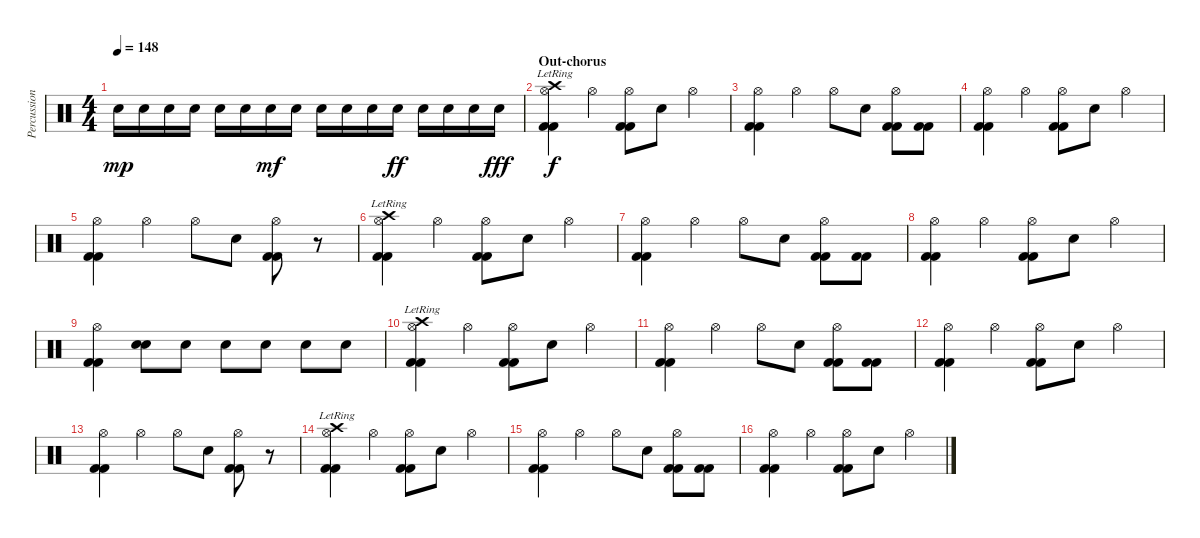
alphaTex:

\track ("Percussion" "Percussion") {instrument percussion}
\staff {score}
\articulation defaults
\ts (4 4)
\tempo 148
\clef neutral
\ks c "Electric Snare (hit)".16{dy mp} "Electric Snare (hit)".16 "Electric Snare (hit)".16 "Electric Snare (hit)".16 "Electric Snare (hit)".16 "Electric Snare (hit)".16 "Electric Snare (hit)".16{dy mf} "Electric Snare (hit)".16 "Electric Snare (hit)".16 "Electric Snare (hit)".16 "Electric Snare (hit)".16 "Electric Snare (hit)".16{dy ff} "Electric Snare (hit)".16 "Electric Snare (hit)".16 "Electric Snare (hit)".16 "Electric Snare (hit)".16{dy fff}
|
\section ("" "Out-chorus")
("Crash high (hit)"{lr} "Hi-Hat (open)" "Kick (hit) 2" "Kick (hit) 2").4{dy f} "Hi-Hat (open)".4 ("Hi-Hat (open)" "Kick (hit) 2" "Kick (hit) 2").8 "Snare (hit) 2".8 "Hi-Hat (open)".4 |
("Hi-Hat (open)" "Kick (hit) 2" "Kick (hit) 2").4 "Hi-Hat (open)".4 "Hi-Hat (open)".8 "Snare (hit) 2".8 ("Hi-Hat (open)" "Kick (hit) 2" "Kick (hit) 2").8 ("Kick (hit) 2" "Kick (hit) 2").8 |
("Hi-Hat (open)" "Kick (hit) 2" "Kick (hit) 2").4 "Hi-Hat (open)".4 ("Hi-Hat (open)" "Kick (hit) 2" "Kick (hit) 2").8 "Snare (hit) 2".8 "Hi-Hat (open)".4 |
("Hi-Hat (open)" "Kick (hit) 2" "Kick (hit) 2").4 "Hi-Hat (open)".4 "Hi-Hat (open)".8 "Snare (hit) 2".8 ("Hi-Hat (open)" "Kick (hit) 2" "Kick (hit) 2").8 r.8 |
("Crash high (hit)"{lr} "Hi-Hat (open)" "Kick (hit) 2" "Kick (hit) 2").4 "Hi-Hat (open)".4 ("Hi-Hat (open)" "Kick (hit) 2" "Kick (hit) 2").8 "Snare (hit) 2".8 "Hi-Hat (open)".4 |
("Hi-Hat (open)" "Kick (hit) 2" "Kick (hit) 2").4 "Hi-Hat (open)".4 "Hi-Hat (open)".8 "Snare (hit) 2".8 ("Hi-Hat (open)" "Kick (hit) 2" "Kick (hit) 2").8 ("Kick (hit) 2" "Kick (hit) 2").8 |
("Hi-Hat (open)" "Kick (hit) 2" "Kick (hit) 2").4 "Hi-Hat (open)".4 ("Hi-Hat (open)" "Kick (hit) 2" "Kick (hit) 2").8 "Snare (hit) 2".8 "Hi-Hat (open)".4 |
("Hi-Hat (open)" "Kick (hit) 2" "Kick (hit) 2").4 ("Electric Snare (hit)" "Electric Snare (hit)").8{bd 240} "Electric Snare (hit)".8 "Electric Snare (hit)".8 "Electric Snare (hit)".8 "Electric Snare (hit)".8 "Electric Snare (hit)".8 |
("Crash high (hit)"{lr} "Hi-Hat (open)" "Kick (hit) 2" "Kick (hit) 2").4 "Hi-Hat (open)".4 ("Hi-Hat (open)" "Kick (hit) 2" "Kick (hit) 2").8 "Snare (hit) 2".8 "Hi-Hat (open)".4 |
("Hi-Hat (open)" "Kick (hit) 2" "Kick (hit) 2").4 "Hi-Hat (open)".4 "Hi-Hat (open)".8 "Snare (hit) 2".8 ("Hi-Hat (open)" "Kick (hit) 2" "Kick (hit) 2").8 ("Kick (hit) 2" "Kick (hit) 2").8 |
("Hi-Hat (open)" "Kick (hit) 2" "Kick (hit) 2").4 "Hi-Hat (open)".4 ("Hi-Hat (open)" "Kick (hit) 2" "Kick (hit) 2").8 "Snare (hit) 2".8 "Hi-Hat (open)".4 |
("Hi-Hat (open)" "Kick (hit) 2" "Kick (hit) 2").4 "Hi-Hat (open)".4 "Hi-Hat (open)".8 "Snare (hit) 2".8 ("Hi-Hat (open)" "Kick (hit) 2" "Kick (hit) 2").8 r.8 |
("Crash high (hit)"{lr} "Hi-Hat (open)" "Kick (hit) 2" "Kick (hit) 2").4 "Hi-Hat (open)".4 ("Hi-Hat (open)" "Kick (hit) 2" "Kick (hit) 2").8 "Snare (hit) 2".8 "Hi-Hat (open)".4 |
("Hi-Hat (open)" "Kick (hit) 2" "Kick (hit) 2").4 "Hi-Hat (open)".4 "Hi-Hat (open)".8 "Snare (hit) 2".8 ("Hi-Hat (open)" "Kick (hit) 2" "Kick (hit) 2").8 ("Kick (hit) 2" "Kick (hit) 2").8 |
("Hi-Hat (open)" "Kick (hit) 2" "Kick (hit) 2").4 "Hi-Hat (open)".4 ("Hi-Hat (open)" "Kick (hit) 2" "Kick (hit) 2").8 "Snare (hit) 2".8 "Hi-Hat (open)".4
